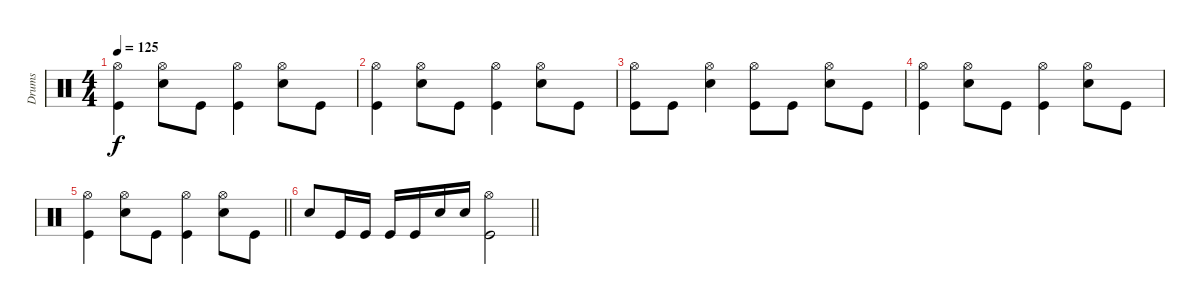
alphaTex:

\track ("Drums" "Drums") {instrument percussion}
\staff {score}
\articulation defaults
\ts (4 4)
\tempo 125
\clef neutral
\ks c
("Hi-Hat (open)" "Kick (hit)").4{dy f} ("Hi-Hat (open)" "Electric Snare (hit)").8 "Kick (hit)".8 ("Hi-Hat (open)" "Kick (hit)").4 ("Hi-Hat (open)" "Electric Snare (hit)").8 "Kick (hit)".8 |
("Hi-Hat (open)" "Kick (hit)").4 ("Hi-Hat (open)" "Electric Snare (hit)").8 "Kick (hit)".8 ("Hi-Hat (open)" "Kick (hit)").4 ("Hi-Hat (open)" "Electric Snare (hit)").8 "Kick (hit)".8 |
("Hi-Hat (open)" "Kick (hit)").8 "Kick (hit)".8 ("Hi-Hat (open)" "Electric Snare (hit)").4 ("Hi-Hat (open)" "Kick (hit)").8 "Kick (hit)".8 ("Hi-Hat (open)" "Electric Snare (hit)").8 "Kick (hit)".8 |
("Hi-Hat (open)" "Kick (hit)").4 ("Hi-Hat (open)" "Electric Snare (hit)").8 "Kick (hit)".8 ("Hi-Hat (open)" "Kick (hit)").4 ("Hi-Hat (open)" "Electric Snare (hit)").8 "Kick (hit)".8 |
\barLineRight lightlight
("Hi-Hat (open)" "Kick (hit)").4 ("Hi-Hat (open)" "Electric Snare (hit)").8 "Kick (hit)".8 ("Hi-Hat (open)" "Kick (hit)").4 ("Hi-Hat (open)" "Electric Snare (hit)").8 "Kick (hit)".8 |
\section ("" "")
\barLineRight lightlight "Electric Snare (hit)".8 "Kick (hit)".16 "Kick (hit)".16 "Kick (hit)".16 "Kick (hit)".16 "Electric Snare (hit)".16 "Electric Snare (hit)".16
("Hi-Hat (open)" "Kick (hit)").2
